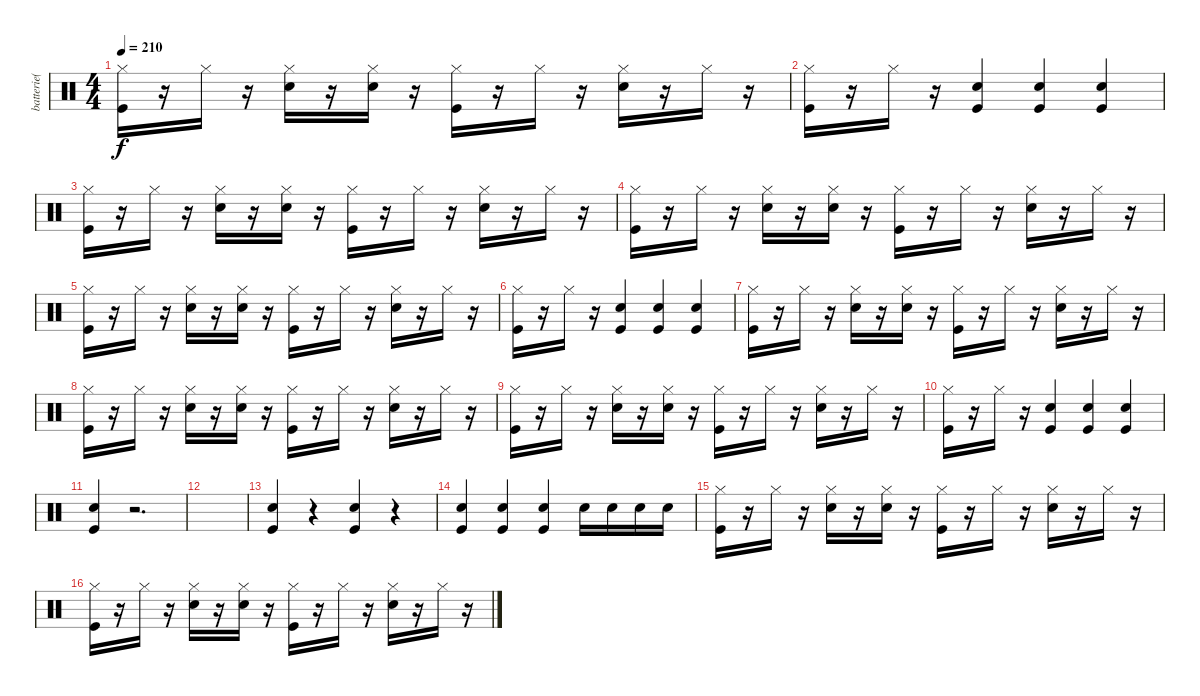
\track ("batterie( Michael Davison )" "batterie( ") {instrument percussion}
\staff {score}
\articulation defaults
\ts (4 4)
\tempo 210
\clef neutral
\ks c
("Hi-Hat (closed)" "Kick (hit)").16{dy f} r.16 "Hi-Hat (closed)".16 r.16 ("Hi-Hat (closed)" "Snare (hit) 2").16 r.16 ("Hi-Hat (closed)" "Snare (hit) 2").16 r.16 ("Hi-Hat (closed)" "Kick (hit)").16 r.16 "Hi-Hat (closed)".16 r.16 ("Hi-Hat (closed)" "Snare (hit) 2").16 r.16 "Hi-Hat (closed)".16 r.16 |
("Hi-Hat (closed)" "Kick (hit)").16 r.16 "Hi-Hat (closed)".16 r.16 ("Snare (hit) 2" "Kick (hit)").4 ("Snare (hit) 2" "Kick (hit)").4 ("Snare (hit) 2" "Kick (hit)").4 |
("Hi-Hat (closed)" "Kick (hit)").16 r.16 "Hi-Hat (closed)".16 r.16 ("Hi-Hat (closed)" "Snare (hit) 2").16 r.16 ("Hi-Hat (closed)" "Snare (hit) 2").16 r.16 ("Hi-Hat (closed)" "Kick (hit)").16 r.16 "Hi-Hat (closed)".16 r.16 ("Hi-Hat (closed)" "Snare (hit) 2").16 r.16 "Hi-Hat (closed)".16 r.16 |
("Hi-Hat (closed)" "Kick (hit)").16 r.16 "Hi-Hat (closed)".16 r.16 ("Hi-Hat (closed)" "Snare (hit) 2").16 r.16 ("Hi-Hat (closed)" "Snare (hit) 2").16 r.16 ("Hi-Hat (closed)" "Kick (hit)").16 r.16 "Hi-Hat (closed)".16 r.16 ("Hi-Hat (closed)" "Snare (hit) 2").16 r.16 "Hi-Hat (closed)".16 r.16 |
("Hi-Hat (closed)" "Kick (hit)").16 r.16 "Hi-Hat (closed)".16 r.16 ("Hi-Hat (closed)" "Snare (hit) 2").16 r.16 ("Hi-Hat (closed)" "Snare (hit) 2").16 r.16 ("Hi-Hat (closed)" "Kick (hit)").16 r.16 "Hi-Hat (closed)".16 r.16 ("Hi-Hat (closed)" "Snare (hit) 2").16 r.16 "Hi-Hat (closed)".16 r.16 |
("Hi-Hat (closed)" "Kick (hit)").16 r.16 "Hi-Hat (closed)".16 r.16 ("Snare (hit) 2" "Kick (hit)").4 ("Snare (hit) 2" "Kick (hit)").4 ("Snare (hit) 2" "Kick (hit)").4 |
("Hi-Hat (closed)" "Kick (hit)").16 r.16 "Hi-Hat (closed)".16 r.16 ("Hi-Hat (closed)" "Snare (hit) 2").16 r.16 ("Hi-Hat (closed)" "Snare (hit) 2").16 r.16 ("Hi-Hat (closed)" "Kick (hit)").16 r.16 "Hi-Hat (closed)".16 r.16 ("Hi-Hat (closed)" "Snare (hit) 2").16 r.16 "Hi-Hat (closed)".16 r.16 |
("Hi-Hat (closed)" "Kick (hit)").16 r.16 "Hi-Hat (closed)".16 r.16 ("Hi-Hat (closed)" "Snare (hit) 2").16 r.16 ("Hi-Hat (closed)" "Snare (hit) 2").16 r.16 ("Hi-Hat (closed)" "Kick (hit)").16 r.16 "Hi-Hat (closed)".16 r.16 ("Hi-Hat (closed)" "Snare (hit) 2").16 r.16 "Hi-Hat (closed)".16 r.16 |
("Hi-Hat (closed)" "Kick (hit)").16 r.16 "Hi-Hat (closed)".16 r.16 ("Hi-Hat (closed)" "Snare (hit) 2").16 r.16 ("Hi-Hat (closed)" "Snare (hit) 2").16 r.16 ("Hi-Hat (closed)" "Kick (hit)").16 r.16 "Hi-Hat (closed)".16 r.16 ("Hi-Hat (closed)" "Snare (hit) 2").16 r.16 "Hi-Hat (closed)".16 r.16 |
("Hi-Hat (closed)" "Kick (hit)").16 r.16 "Hi-Hat (closed)".16 r.16 ("Snare (hit) 2" "Kick (hit)").4 ("Snare (hit) 2" "Kick (hit)").4 ("Snare (hit) 2" "Kick (hit)").4 |
("Snare (hit) 2" "Kick (hit)").4 r.2{d} |
|
("Snare (hit) 2" "Kick (hit)").4 r.4 ("Snare (hit) 2" "Kick (hit)").4 r.4 |
("Snare (hit) 2" "Kick (hit)").4 ("Snare (hit) 2" "Kick (hit)").4 ("Snare (hit) 2" "Kick (hit)").4 "Snare (hit) 2".16 "Snare (hit) 2".16 "Snare (hit) 2".16 "Snare (hit) 2".16 |
("Hi-Hat (closed)" "Kick (hit)").16{volume 10} r.16 "Hi-Hat (closed)".16 r.16 ("Hi-Hat (closed)" "Snare (hit) 2").16 r.16 ("Hi-Hat (closed)" "Snare (hit) 2").16 r.16 ("Hi-Hat (closed)" "Kick (hit)").16 r.16 "Hi-Hat (closed)".16 r.16 ("Hi-Hat (closed)" "Snare (hit) 2").16 r.16 "Hi-Hat (closed)".16 r.16 |
("Hi-Hat (closed)" "Kick (hit)").16 r.16 "Hi-Hat (closed)".16 r.16 ("Hi-Hat (closed)" "Snare (hit) 2").16 r.16 ("Hi-Hat (closed)" "Snare (hit) 2").16 r.16 ("Hi-Hat (closed)" "Kick (hit)").16 r.16 "Hi-Hat (closed)".16 r.16 ("Hi-Hat (closed)" "Snare (hit) 2").16 r.16 "Hi-Hat (closed)".16 r.16
